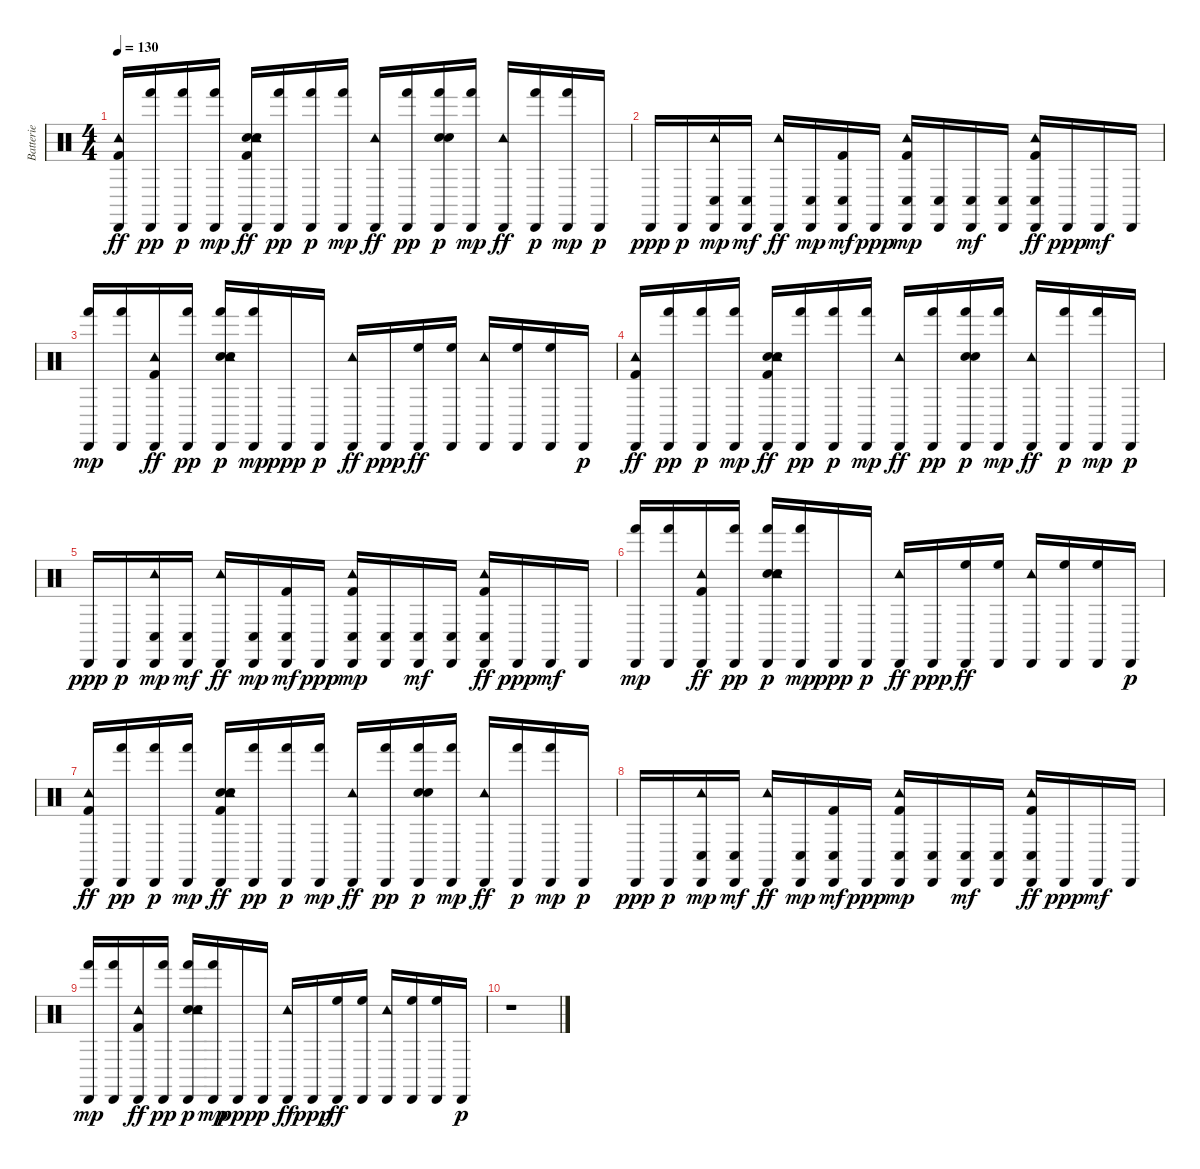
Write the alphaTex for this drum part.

\track ("Batterie" "Batterie") {instrument percussion}
\staff {score}
\articulation defaults
\ts (4 4)
\tempo 130
\clef neutral
\ks c
("Cabasa (hit)" "Tambourine (hit)" "Kick (hit) 2").16{dy ff} ("Cabasa (hit)" "Hand (hit)").16{dy pp} ("Cabasa (hit)" "Hand (hit)").16{dy p} ("Cabasa (hit)" "Hand (hit)").16{dy mp} ("Hand Clap (hit)" "Cabasa (hit)" "Tambourine (hit)" "Kick (hit) 2" "Snare (hit) 2").16{dy ff} ("Cabasa (hit)" "Hand (hit)").16{dy pp} ("Cabasa (hit)" "Hand (hit)").16{dy p} ("Cabasa (hit)" "Hand (hit)").16{dy mp} ("Cabasa (hit)" "Tambourine (hit)").16{dy ff} ("Cabasa (hit)" "Hand (hit)").16{dy pp} ("Hand Clap (hit)" "Cabasa (hit)" "Snare (hit) 2" "Hand (hit)").16{dy p} ("Cabasa (hit)" "Hand (hit)").16{dy mp} ("Cabasa (hit)" "Tambourine (hit)").16{dy ff} ("Cabasa (hit)" "Hand (hit)").16{dy p} ("Cabasa (hit)" "Hand (hit)").16{dy mp} "Cabasa (hit)".16{dy p} |
"Cabasa (hit)".16{dy ppp} "Cabasa (hit)".16{dy p} ("Cabasa (hit)" "Tambourine (hit)" "Conga low (hit)").16{dy mp} ("Cabasa (hit)" "Conga low (hit)").16{dy mf} ("Cabasa (hit)" "Tambourine (hit)").16{dy ff} ("Cabasa (hit)" "Conga low (hit)").16{dy mp} ("Cabasa (hit)" "Kick (hit) 2" "Conga low (hit)").16{dy mf} "Cabasa (hit)".16{dy ppp} ("Cabasa (hit)" "Tambourine (hit)" "Kick (hit) 2" "Conga low (hit)").16{dy mp} ("Cabasa (hit)" "Conga low (hit)").16 ("Cabasa (hit)" "Conga low (hit)").16{dy mf} ("Cabasa (hit)" "Conga low (hit)").16 ("Cabasa (hit)" "Tambourine (hit)" "Kick (hit) 2" "Conga low (hit)").16{dy ff} "Cabasa (hit)".16{dy ppp} "Cabasa (hit)".16{dy mf} "Cabasa (hit)".16 |
("Cabasa (hit)" "Hand (hit)").16{dy mp} ("Cabasa (hit)" "Hand (hit)").16 ("Cabasa (hit)" "Tambourine (hit)" "Kick (hit) 2").16{dy ff} ("Cabasa (hit)" "Hand (hit)").16{dy pp} ("Hand Clap (hit)" "Cabasa (hit)" "Tambourine (hit)" "Snare (hit) 2" "Hand (hit)").16{dy p} ("Cabasa (hit)" "Hand (hit)").16{dy mp} "Cabasa (hit)".16{dy ppp} "Cabasa (hit)".16{dy p} ("Cabasa (hit)" "Tambourine (hit)").16{dy ff} "Cabasa (hit)".16{dy ppp} ("Cabasa (hit)" "High Floor Tom (hit)").16{dy ff} ("Cabasa (hit)" "High Floor Tom (hit)").16 ("Cabasa (hit)" "Tambourine (hit)").16 ("Cabasa (hit)" "High Floor Tom (hit)").16 ("Cabasa (hit)" "High Floor Tom (hit)").16 "Cabasa (hit)".16{dy p} |
("Cabasa (hit)" "Tambourine (hit)" "Kick (hit) 2").16{dy ff} ("Cabasa (hit)" "Hand (hit)").16{dy pp} ("Cabasa (hit)" "Hand (hit)").16{dy p} ("Cabasa (hit)" "Hand (hit)").16{dy mp} ("Hand Clap (hit)" "Cabasa (hit)" "Tambourine (hit)" "Kick (hit) 2" "Snare (hit) 2").16{dy ff} ("Cabasa (hit)" "Hand (hit)").16{dy pp} ("Cabasa (hit)" "Hand (hit)").16{dy p} ("Cabasa (hit)" "Hand (hit)").16{dy mp} ("Cabasa (hit)" "Tambourine (hit)").16{dy ff} ("Cabasa (hit)" "Hand (hit)").16{dy pp} ("Hand Clap (hit)" "Cabasa (hit)" "Snare (hit) 2" "Hand (hit)").16{dy p} ("Cabasa (hit)" "Hand (hit)").16{dy mp} ("Cabasa (hit)" "Tambourine (hit)").16{dy ff} ("Cabasa (hit)" "Hand (hit)").16{dy p} ("Cabasa (hit)" "Hand (hit)").16{dy mp} "Cabasa (hit)".16{dy p} |
"Cabasa (hit)".16{dy ppp} "Cabasa (hit)".16{dy p} ("Cabasa (hit)" "Tambourine (hit)" "Conga low (hit)").16{dy mp} ("Cabasa (hit)" "Conga low (hit)").16{dy mf} ("Cabasa (hit)" "Tambourine (hit)").16{dy ff} ("Cabasa (hit)" "Conga low (hit)").16{dy mp} ("Cabasa (hit)" "Kick (hit) 2" "Conga low (hit)").16{dy mf} "Cabasa (hit)".16{dy ppp} ("Cabasa (hit)" "Tambourine (hit)" "Kick (hit) 2" "Conga low (hit)").16{dy mp} ("Cabasa (hit)" "Conga low (hit)").16 ("Cabasa (hit)" "Conga low (hit)").16{dy mf} ("Cabasa (hit)" "Conga low (hit)").16 ("Cabasa (hit)" "Tambourine (hit)" "Kick (hit) 2" "Conga low (hit)").16{dy ff} "Cabasa (hit)".16{dy ppp} "Cabasa (hit)".16{dy mf} "Cabasa (hit)".16 |
("Cabasa (hit)" "Hand (hit)").16{dy mp} ("Cabasa (hit)" "Hand (hit)").16 ("Cabasa (hit)" "Tambourine (hit)" "Kick (hit) 2").16{dy ff} ("Cabasa (hit)" "Hand (hit)").16{dy pp} ("Hand Clap (hit)" "Cabasa (hit)" "Tambourine (hit)" "Snare (hit) 2" "Hand (hit)").16{dy p} ("Cabasa (hit)" "Hand (hit)").16{dy mp} "Cabasa (hit)".16{dy ppp} "Cabasa (hit)".16{dy p} ("Cabasa (hit)" "Tambourine (hit)").16{dy ff} "Cabasa (hit)".16{dy ppp} ("Cabasa (hit)" "High Floor Tom (hit)").16{dy ff} ("Cabasa (hit)" "High Floor Tom (hit)").16 ("Cabasa (hit)" "Tambourine (hit)").16 ("Cabasa (hit)" "High Floor Tom (hit)").16 ("Cabasa (hit)" "High Floor Tom (hit)").16 "Cabasa (hit)".16{dy p} |
("Cabasa (hit)" "Tambourine (hit)" "Kick (hit) 2").16{dy ff} ("Cabasa (hit)" "Hand (hit)").16{dy pp} ("Cabasa (hit)" "Hand (hit)").16{dy p} ("Cabasa (hit)" "Hand (hit)").16{dy mp} ("Hand Clap (hit)" "Cabasa (hit)" "Tambourine (hit)" "Kick (hit) 2" "Snare (hit) 2").16{dy ff} ("Cabasa (hit)" "Hand (hit)").16{dy pp} ("Cabasa (hit)" "Hand (hit)").16{dy p} ("Cabasa (hit)" "Hand (hit)").16{dy mp} ("Cabasa (hit)" "Tambourine (hit)").16{dy ff} ("Cabasa (hit)" "Hand (hit)").16{dy pp} ("Hand Clap (hit)" "Cabasa (hit)" "Snare (hit) 2" "Hand (hit)").16{dy p} ("Cabasa (hit)" "Hand (hit)").16{dy mp} ("Cabasa (hit)" "Tambourine (hit)").16{dy ff} ("Cabasa (hit)" "Hand (hit)").16{dy p} ("Cabasa (hit)" "Hand (hit)").16{dy mp} "Cabasa (hit)".16{dy p} |
"Cabasa (hit)".16{dy ppp} "Cabasa (hit)".16{dy p} ("Cabasa (hit)" "Tambourine (hit)" "Conga low (hit)").16{dy mp} ("Cabasa (hit)" "Conga low (hit)").16{dy mf} ("Cabasa (hit)" "Tambourine (hit)").16{dy ff} ("Cabasa (hit)" "Conga low (hit)").16{dy mp} ("Cabasa (hit)" "Kick (hit) 2" "Conga low (hit)").16{dy mf} "Cabasa (hit)".16{dy ppp} ("Cabasa (hit)" "Tambourine (hit)" "Kick (hit) 2" "Conga low (hit)").16{dy mp} ("Cabasa (hit)" "Conga low (hit)").16 ("Cabasa (hit)" "Conga low (hit)").16{dy mf} ("Cabasa (hit)" "Conga low (hit)").16 ("Cabasa (hit)" "Tambourine (hit)" "Kick (hit) 2" "Conga low (hit)").16{dy ff} "Cabasa (hit)".16{dy ppp} "Cabasa (hit)".16{dy mf} "Cabasa (hit)".16 |
("Cabasa (hit)" "Hand (hit)").16{dy mp} ("Cabasa (hit)" "Hand (hit)").16 ("Cabasa (hit)" "Tambourine (hit)" "Kick (hit) 2").16{dy ff} ("Cabasa (hit)" "Hand (hit)").16{dy pp} ("Hand Clap (hit)" "Cabasa (hit)" "Tambourine (hit)" "Snare (hit) 2" "Hand (hit)").16{dy p} ("Cabasa (hit)" "Hand (hit)").16{dy mp} "Cabasa (hit)".16{dy ppp} "Cabasa (hit)".16{dy p} ("Cabasa (hit)" "Tambourine (hit)").16{dy ff} "Cabasa (hit)".16{dy ppp} ("Cabasa (hit)" "High Floor Tom (hit)").16{dy ff} ("Cabasa (hit)" "High Floor Tom (hit)").16 ("Cabasa (hit)" "Tambourine (hit)").16 ("Cabasa (hit)" "High Floor Tom (hit)").16 ("Cabasa (hit)" "High Floor Tom (hit)").16 "Cabasa (hit)".16{dy p} |
r.1
